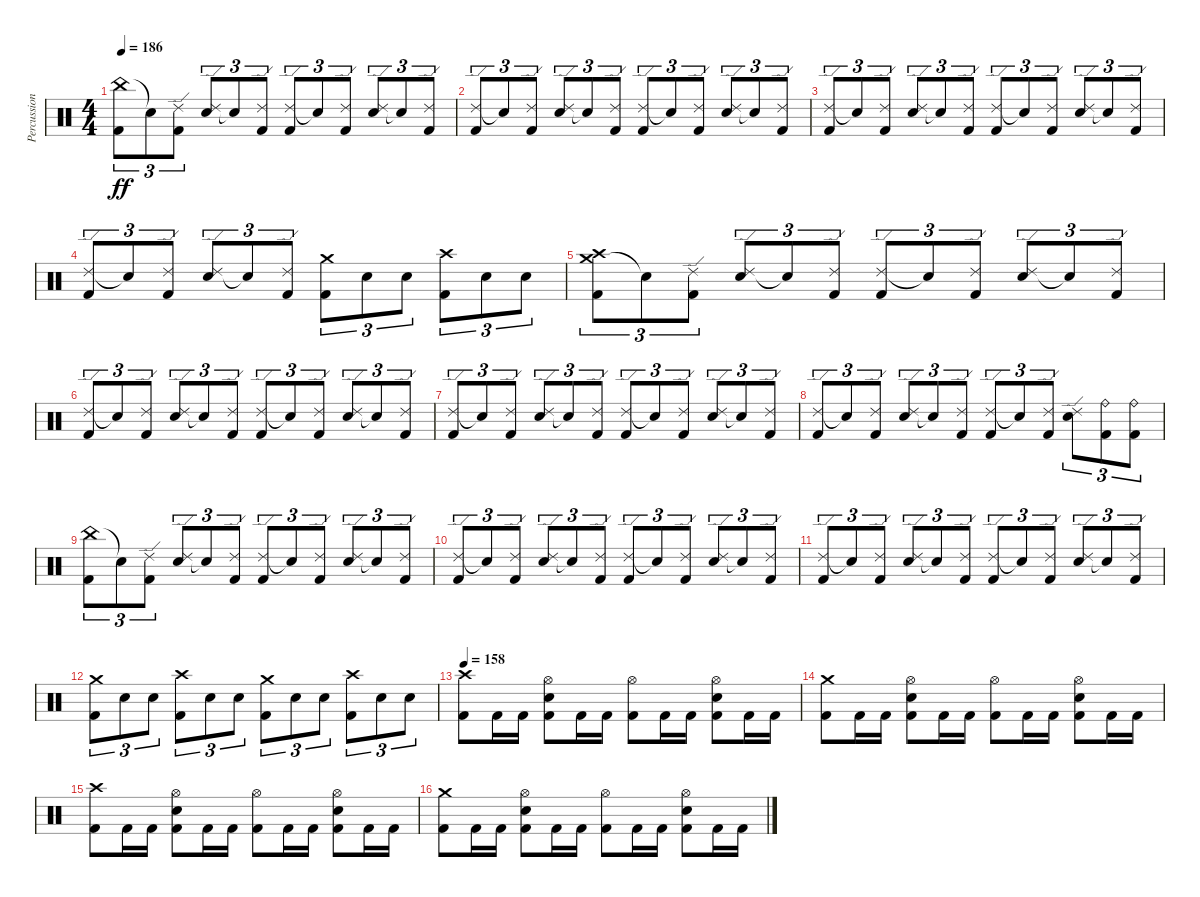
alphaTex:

\track ("Percussion" "Percussion") {instrument percussion}
\staff {score}
\articulation defaults
\ts (4 4)
\tempo 186
\clef neutral
\ks c
("China (hit)" "Kick (hit) 2").8{tu (3 2) dy ff} "Snare (hit)"{t}.8{tu (3 2)} ("Ride (edge) 2" "Kick (hit) 2").8{tu (3 2)} ("Ride (edge) 2" "Snare (hit) 2").8{tu (3 2)} "Snare (hit)"{t}.8{tu (3 2)} ("Ride (edge) 2" "Kick (hit) 2").8{tu (3 2)} ("Ride (edge) 2" "Kick (hit) 2").8{tu (3 2)} "Snare (hit)"{t}.8{tu (3 2)} ("Ride (edge) 2" "Kick (hit) 2").8{tu (3 2)} ("Ride (edge) 2" "Snare (hit) 2").8{tu (3 2)} "Snare (hit)"{t}.8{tu (3 2)} ("Ride (edge) 2" "Kick (hit) 2").8{tu (3 2)} |
("Ride (edge) 2" "Kick (hit) 2").8{tu (3 2)} "Snare (hit)"{t}.8{tu (3 2)} ("Ride (edge) 2" "Kick (hit) 2").8{tu (3 2)} ("Ride (edge) 2" "Snare (hit) 2").8{tu (3 2)} "Snare (hit)"{t}.8{tu (3 2)} ("Ride (edge) 2" "Kick (hit) 2").8{tu (3 2)} ("Ride (edge) 2" "Kick (hit) 2").8{tu (3 2)} "Snare (hit)"{t}.8{tu (3 2)} ("Ride (edge) 2" "Kick (hit) 2").8{tu (3 2)} ("Ride (edge) 2" "Snare (hit) 2").8{tu (3 2)} "Snare (hit)"{t}.8{tu (3 2)} ("Ride (edge) 2" "Kick (hit) 2").8{tu (3 2)} |
("Ride (edge) 2" "Kick (hit) 2").8{tu (3 2)} "Snare (hit)"{t}.8{tu (3 2)} ("Ride (edge) 2" "Kick (hit) 2").8{tu (3 2)} ("Ride (edge) 2" "Snare (hit) 2").8{tu (3 2)} "Snare (hit)"{t}.8{tu (3 2)} ("Ride (edge) 2" "Kick (hit) 2").8{tu (3 2)} ("Ride (edge) 2" "Kick (hit) 2").8{tu (3 2)} "Snare (hit)"{t}.8{tu (3 2)} ("Ride (edge) 2" "Kick (hit) 2").8{tu (3 2)} ("Ride (edge) 2" "Snare (hit) 2").8{tu (3 2)} "Snare (hit)"{t}.8{tu (3 2)} ("Ride (edge) 2" "Kick (hit) 2").8{tu (3 2)} |
("Ride (edge) 2" "Kick (hit) 2").8{tu (3 2)} "Snare (hit)"{t}.8{tu (3 2)} ("Ride (edge) 2" "Kick (hit) 2").8{tu (3 2)} ("Ride (edge) 2" "Snare (hit) 2").8{tu (3 2)} "Snare (hit)"{t}.8{tu (3 2)} ("Ride (edge) 2" "Kick (hit) 2").8{tu (3 2)} ("Crash medium (hit)" "Kick (hit) 2").8{tu (3 2)} "Snare (hit) 2".8{tu (3 2)} "Snare (hit) 2".8{tu (3 2)} ("Crash high (hit)" "Kick (hit) 2").8{tu (3 2)} "Snare (hit) 2".8{tu (3 2)} "Snare (hit) 2".8{tu (3 2)} |
("Crash medium (hit)" "Crash high (hit)" "Kick (hit) 2").8{tu (3 2)} "Snare (hit)"{t}.8{tu (3 2)} ("Ride (edge) 2" "Kick (hit) 2").8{tu (3 2)} ("Ride (edge) 2" "Snare (hit) 2").8{tu (3 2)} "Snare (hit)"{t}.8{tu (3 2)} ("Ride (edge) 2" "Kick (hit) 2").8{tu (3 2)} ("Ride (edge) 2" "Kick (hit) 2").8{tu (3 2)} "Snare (hit)"{t}.8{tu (3 2)} ("Ride (edge) 2" "Kick (hit) 2").8{tu (3 2)} ("Ride (edge) 2" "Snare (hit) 2").8{tu (3 2)} "Snare (hit)"{t}.8{tu (3 2)} ("Ride (edge) 2" "Kick (hit) 2").8{tu (3 2)} |
("Ride (edge) 2" "Kick (hit) 2").8{tu (3 2)} "Snare (hit)"{t}.8{tu (3 2)} ("Ride (edge) 2" "Kick (hit) 2").8{tu (3 2)} ("Ride (edge) 2" "Snare (hit) 2").8{tu (3 2)} "Snare (hit)"{t}.8{tu (3 2)} ("Ride (edge) 2" "Kick (hit) 2").8{tu (3 2)} ("Ride (edge) 2" "Kick (hit) 2").8{tu (3 2)} "Snare (hit)"{t}.8{tu (3 2)} ("Ride (edge) 2" "Kick (hit) 2").8{tu (3 2)} ("Ride (edge) 2" "Snare (hit) 2").8{tu (3 2)} "Snare (hit)"{t}.8{tu (3 2)} ("Ride (edge) 2" "Kick (hit) 2").8{tu (3 2)} |
("Ride (edge) 2" "Kick (hit) 2").8{tu (3 2)} "Snare (hit)"{t}.8{tu (3 2)} ("Ride (edge) 2" "Kick (hit) 2").8{tu (3 2)} ("Ride (edge) 2" "Snare (hit) 2").8{tu (3 2)} "Snare (hit)"{t}.8{tu (3 2)} ("Ride (edge) 2" "Kick (hit) 2").8{tu (3 2)} ("Ride (edge) 2" "Kick (hit) 2").8{tu (3 2)} "Snare (hit)"{t}.8{tu (3 2)} ("Ride (edge) 2" "Kick (hit) 2").8{tu (3 2)} ("Ride (edge) 2" "Snare (hit) 2").8{tu (3 2)} "Snare (hit)"{t}.8{tu (3 2)} ("Ride (edge) 2" "Kick (hit) 2").8{tu (3 2)} |
("Ride (edge) 2" "Kick (hit) 2").8{tu (3 2)} "Snare (hit)"{t}.8{tu (3 2)} ("Ride (edge) 2" "Kick (hit) 2").8{tu (3 2)} ("Ride (edge) 2" "Snare (hit) 2").8{tu (3 2)} "Snare (hit)"{t}.8{tu (3 2)} ("Ride (edge) 2" "Kick (hit) 2").8{tu (3 2)} ("Ride (edge) 2" "Kick (hit) 2").8{tu (3 2)} "Snare (hit)"{t}.8{tu (3 2)} ("Ride (edge) 2" "Kick (hit) 2").8{tu (3 2)} ("Ride (edge) 2" "Snare (hit) 2").8{tu (3 2)} ("Ride (bell)" "Kick (hit) 2").8{tu (3 2)} ("Ride (bell)" "Kick (hit) 2").8{tu (3 2)} |
("China (hit)" "Kick (hit) 2").8{tu (3 2)} "Snare (hit)"{t}.8{tu (3 2)} ("Ride (edge) 2" "Kick (hit) 2").8{tu (3 2)} ("Ride (edge) 2" "Snare (hit) 2").8{tu (3 2)} "Snare (hit)"{t}.8{tu (3 2)} ("Ride (edge) 2" "Kick (hit) 2").8{tu (3 2)} ("Ride (edge) 2" "Kick (hit) 2").8{tu (3 2)} "Snare (hit)"{t}.8{tu (3 2)} ("Ride (edge) 2" "Kick (hit) 2").8{tu (3 2)} ("Ride (edge) 2" "Snare (hit) 2").8{tu (3 2)} "Snare (hit)"{t}.8{tu (3 2)} ("Ride (edge) 2" "Kick (hit) 2").8{tu (3 2)} |
("Ride (edge) 2" "Kick (hit) 2").8{tu (3 2)} "Snare (hit)"{t}.8{tu (3 2)} ("Ride (edge) 2" "Kick (hit) 2").8{tu (3 2)} ("Ride (edge) 2" "Snare (hit) 2").8{tu (3 2)} "Snare (hit)"{t}.8{tu (3 2)} ("Ride (edge) 2" "Kick (hit) 2").8{tu (3 2)} ("Ride (edge) 2" "Kick (hit) 2").8{tu (3 2)} "Snare (hit)"{t}.8{tu (3 2)} ("Ride (edge) 2" "Kick (hit) 2").8{tu (3 2)} ("Ride (edge) 2" "Snare (hit) 2").8{tu (3 2)} "Snare (hit)"{t}.8{tu (3 2)} ("Ride (edge) 2" "Kick (hit) 2").8{tu (3 2)} |
("Ride (edge) 2" "Kick (hit) 2").8{tu (3 2)} "Snare (hit)"{t}.8{tu (3 2)} ("Ride (edge) 2" "Kick (hit) 2").8{tu (3 2)} ("Ride (edge) 2" "Snare (hit) 2").8{tu (3 2)} "Snare (hit)"{t}.8{tu (3 2)} ("Ride (edge) 2" "Kick (hit) 2").8{tu (3 2)} ("Ride (edge) 2" "Kick (hit) 2").8{tu (3 2)} "Snare (hit)"{t}.8{tu (3 2)} ("Ride (edge) 2" "Kick (hit) 2").8{tu (3 2)} ("Ride (edge) 2" "Snare (hit) 2").8{tu (3 2)} "Snare (hit)"{t}.8{tu (3 2)} ("Ride (edge) 2" "Kick (hit) 2").8{tu (3 2)} |
("Crash medium (hit)" "Kick (hit) 2").8{tu (3 2)} "Snare (hit) 2".8{tu (3 2)} "Snare (hit) 2".8{tu (3 2)} ("Crash high (hit)" "Kick (hit) 2").8{tu (3 2)} "Snare (hit) 2".8{tu (3 2)} "Snare (hit) 2".8{tu (3 2)} ("Crash medium (hit)" "Kick (hit) 2").8{tu (3 2)} "Snare (hit) 2".8{tu (3 2)} "Snare (hit) 2".8{tu (3 2)} ("Crash high (hit)" "Kick (hit) 2").8{tu (3 2)} "Snare (hit) 2".8{tu (3 2)} "Snare (hit) 2".8{tu (3 2)} |
\tempo 158
("Crash high (hit)" "Kick (hit) 2").8 "Kick (hit) 2".16 "Kick (hit) 2".16 ("Hi-Hat (open)" "Snare (hit) 2" "Kick (hit) 2").8 "Kick (hit) 2".16 "Kick (hit) 2".16 ("Hi-Hat (open)" "Kick (hit) 2").8 "Kick (hit) 2".16 "Kick (hit) 2".16 ("Hi-Hat (open)" "Snare (hit) 2" "Kick (hit) 2").8 "Kick (hit) 2".16 "Kick (hit) 2".16 |
("Crash medium (hit)" "Kick (hit) 2").8 "Kick (hit) 2".16 "Kick (hit) 2".16 ("Hi-Hat (open)" "Snare (hit) 2" "Kick (hit) 2").8 "Kick (hit) 2".16 "Kick (hit) 2".16 ("Hi-Hat (open)" "Kick (hit) 2").8 "Kick (hit) 2".16 "Kick (hit) 2".16 ("Hi-Hat (open)" "Snare (hit) 2" "Kick (hit) 2").8 "Kick (hit) 2".16 "Kick (hit) 2".16 |
("Crash high (hit)" "Kick (hit) 2").8 "Kick (hit) 2".16 "Kick (hit) 2".16 ("Hi-Hat (open)" "Snare (hit) 2" "Kick (hit) 2").8 "Kick (hit) 2".16 "Kick (hit) 2".16 ("Hi-Hat (open)" "Kick (hit) 2").8 "Kick (hit) 2".16 "Kick (hit) 2".16 ("Hi-Hat (open)" "Snare (hit) 2" "Kick (hit) 2").8 "Kick (hit) 2".16 "Kick (hit) 2".16 |
("Crash medium (hit)" "Kick (hit) 2").8 "Kick (hit) 2".16 "Kick (hit) 2".16 ("Hi-Hat (open)" "Snare (hit) 2" "Kick (hit) 2").8 "Kick (hit) 2".16 "Kick (hit) 2".16 ("Hi-Hat (open)" "Kick (hit) 2").8 "Kick (hit) 2".16 "Kick (hit) 2".16 ("Hi-Hat (open)" "Snare (hit) 2" "Kick (hit) 2").8 "Kick (hit) 2".16 "Kick (hit) 2".16
